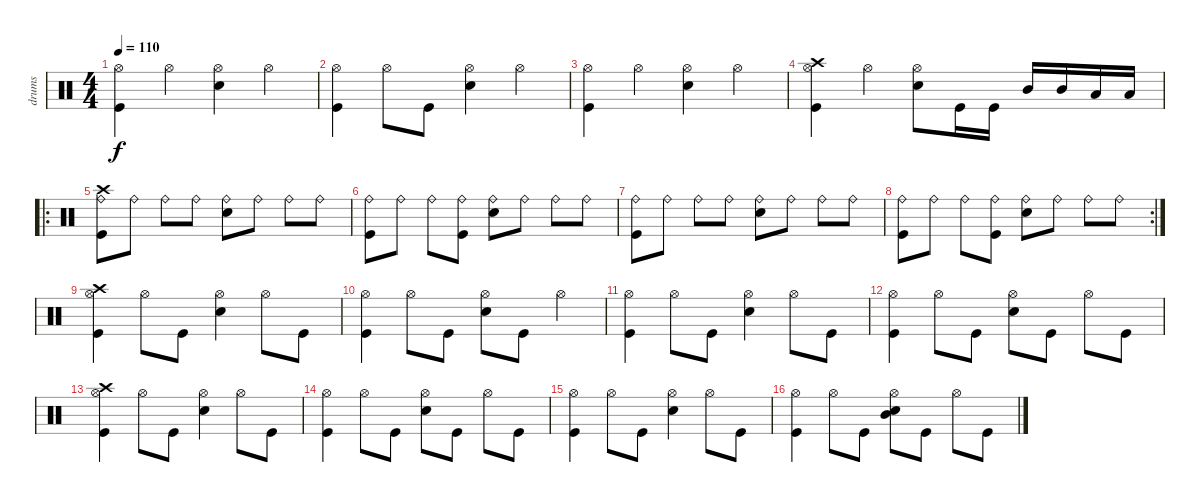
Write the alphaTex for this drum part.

\track ("drums" "drums") {instrument percussion}
\staff {score}
\articulation defaults
\ts (4 4)
\tempo 110
\clef neutral
\ks c
("Hi-Hat (open)" "Kick (hit)").4{dy f} "Hi-Hat (open)".4 ("Hi-Hat (open)" "Snare (hit) 2").4 "Hi-Hat (open)".4 |
("Hi-Hat (open)" "Kick (hit)").4 "Hi-Hat (open)".8 "Kick (hit)".8 ("Hi-Hat (open)" "Snare (hit) 2").4 "Hi-Hat (open)".4 |
("Hi-Hat (open)" "Kick (hit)").4 "Hi-Hat (open)".4 ("Hi-Hat (open)" "Snare (hit) 2").4 "Hi-Hat (open)".4 |
("Crash high (hit)" "Hi-Hat (open)" "Kick (hit)").4 "Hi-Hat (open)".4 ("Hi-Hat (open)" "Snare (hit) 2").8 "Kick (hit)".16 "Kick (hit)".16 "Mid Tom (hit)".16 "Mid Tom (hit)".16 "Low Tom (hit)".16 "Low Tom (hit)".16 |
\ro
("Crash high (hit)" "Ride (bell)" "Kick (hit)").8 "Ride (bell)".8 "Ride (bell)".8 "Ride (bell)".8 ("Ride (bell)" "Snare (hit) 2").8 "Ride (bell)".8 "Ride (bell)".8 "Ride (bell)".8 |
("Ride (bell)" "Kick (hit)").8 "Ride (bell)".8 "Ride (bell)".8 ("Ride (bell)" "Kick (hit)").8 ("Ride (bell)" "Snare (hit) 2").8 "Ride (bell)".8 "Ride (bell)".8 "Ride (bell)".8 |
("Ride (bell)" "Kick (hit)").8 "Ride (bell)".8 "Ride (bell)".8 "Ride (bell)".8 ("Ride (bell)" "Snare (hit) 2").8 "Ride (bell)".8 "Ride (bell)".8 "Ride (bell)".8 |
\rc 2
("Ride (bell)" "Kick (hit)").8 "Ride (bell)".8 "Ride (bell)".8 ("Ride (bell)" "Kick (hit)").8 ("Ride (bell)" "Snare (hit) 2").8 "Ride (bell)".8 "Ride (bell)".8 "Ride (bell)".8 |
("Crash high (hit)" "Hi-Hat (open)" "Kick (hit)").4 "Hi-Hat (open)".8 "Kick (hit)".8 ("Hi-Hat (open)" "Snare (hit) 2").4 "Hi-Hat (open)".8 "Kick (hit)".8 |
("Hi-Hat (open)" "Kick (hit)").4 "Hi-Hat (open)".8 "Kick (hit)".8 ("Hi-Hat (open)" "Snare (hit) 2").8 "Kick (hit)".8 "Hi-Hat (open)".4 |
("Hi-Hat (open)" "Kick (hit)").4 "Hi-Hat (open)".8 "Kick (hit)".8 ("Hi-Hat (open)" "Snare (hit) 2").4 "Hi-Hat (open)".8 "Kick (hit)".8 |
("Hi-Hat (open)" "Kick (hit)").4 "Hi-Hat (open)".8 "Kick (hit)".8 ("Hi-Hat (open)" "Snare (hit) 2").8 "Kick (hit)".8 "Hi-Hat (open)".8 "Kick (hit)".8 |
("Crash high (hit)" "Hi-Hat (open)" "Kick (hit)").4 "Hi-Hat (open)".8 "Kick (hit)".8 ("Hi-Hat (open)" "Snare (hit) 2").4 "Hi-Hat (open)".8 "Kick (hit)".8 |
("Hi-Hat (open)" "Kick (hit)").4 "Hi-Hat (open)".8 "Kick (hit)".8 ("Hi-Hat (open)" "Snare (hit) 2").8 "Kick (hit)".8 "Hi-Hat (open)".8 "Kick (hit)".8 |
("Hi-Hat (open)" "Kick (hit)").4 "Hi-Hat (open)".8 "Kick (hit)".8 ("Hi-Hat (open)" "Snare (hit) 2").4 "Hi-Hat (open)".8 "Kick (hit)".8 |
("Hi-Hat (open)" "Kick (hit)").4 "Hi-Hat (open)".8 "Kick (hit)".8 ("Mid Tom (hit)" "Hi-Hat (open)" "Snare (hit) 2").8 "Kick (hit)".8 "Hi-Hat (open)".8 "Kick (hit)".8
